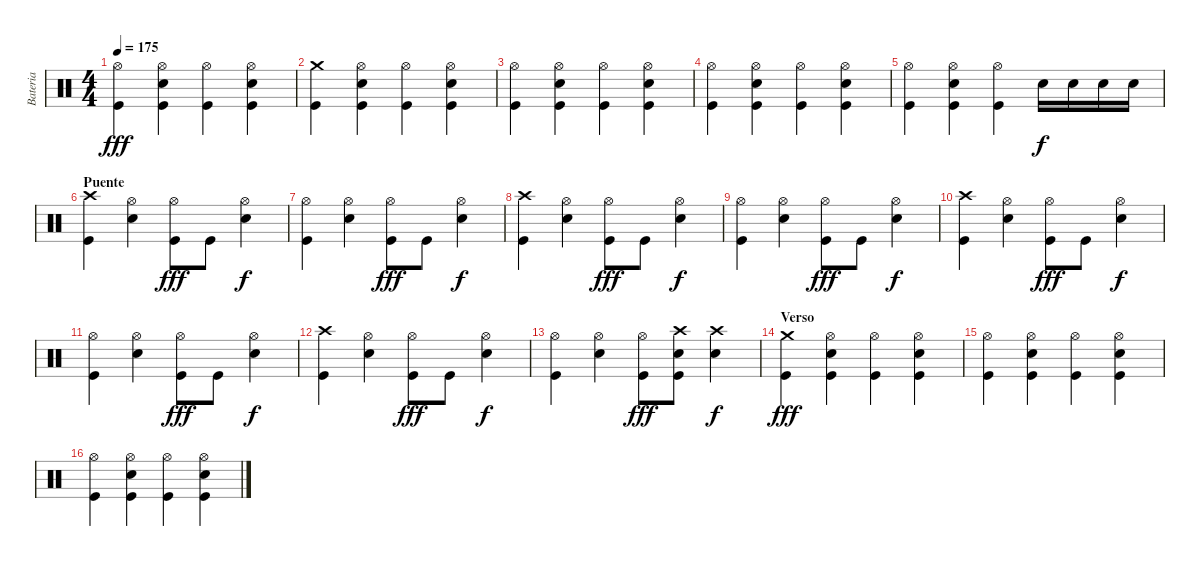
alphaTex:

\track ("Bateria" "Bateria") {instrument percussion}
\staff {score}
\articulation defaults
\ts (4 4)
\tempo 175
\clef neutral
\ks c
("Hi-Hat (open)" "Kick (hit)").4{dy fff} ("Hi-Hat (open)" "Electric Snare (hit)" "Kick (hit)").4 ("Hi-Hat (open)" "Kick (hit)").4 ("Hi-Hat (open)" "Electric Snare (hit)" "Kick (hit)").4 |
("Crash medium (hit)" "Kick (hit)").4 ("Hi-Hat (open)" "Electric Snare (hit)" "Kick (hit)").4 ("Hi-Hat (open)" "Kick (hit)").4 ("Hi-Hat (open)" "Electric Snare (hit)" "Kick (hit)").4 |
("Hi-Hat (open)" "Kick (hit)").4 ("Hi-Hat (open)" "Electric Snare (hit)" "Kick (hit)").4 ("Hi-Hat (open)" "Kick (hit)").4 ("Hi-Hat (open)" "Electric Snare (hit)" "Kick (hit)").4 |
("Hi-Hat (open)" "Kick (hit)").4 ("Hi-Hat (open)" "Electric Snare (hit)" "Kick (hit)").4 ("Hi-Hat (open)" "Kick (hit)").4 ("Hi-Hat (open)" "Electric Snare (hit)" "Kick (hit)").4 |
("Hi-Hat (open)" "Kick (hit)").4 ("Hi-Hat (open)" "Electric Snare (hit)" "Kick (hit)").4 ("Hi-Hat (open)" "Kick (hit)").4 "Electric Snare (hit)".16{dy f} "Electric Snare (hit)".16 "Electric Snare (hit)".16 "Electric Snare (hit)".16 |
\section ("" "Puente")
("Crash high (hit)" "Kick (hit)").4 ("Hi-Hat (open)" "Electric Snare (hit)").4 ("Hi-Hat (open)" "Kick (hit)").8{dy fff} "Kick (hit)".8 ("Hi-Hat (open)" "Electric Snare (hit)").4{dy f} |
("Hi-Hat (open)" "Kick (hit)").4 ("Hi-Hat (open)" "Electric Snare (hit)").4 ("Hi-Hat (open)" "Kick (hit)").8{dy fff} "Kick (hit)".8 ("Hi-Hat (open)" "Electric Snare (hit)").4{dy f} |
("Crash high (hit)" "Kick (hit)").4 ("Hi-Hat (open)" "Electric Snare (hit)").4 ("Hi-Hat (open)" "Kick (hit)").8{dy fff} "Kick (hit)".8 ("Hi-Hat (open)" "Electric Snare (hit)").4{dy f} |
("Hi-Hat (open)" "Kick (hit)").4 ("Hi-Hat (open)" "Electric Snare (hit)").4 ("Hi-Hat (open)" "Kick (hit)").8{dy fff} "Kick (hit)".8 ("Hi-Hat (open)" "Electric Snare (hit)").4{dy f} |
("Crash high (hit)" "Kick (hit)").4 ("Hi-Hat (open)" "Electric Snare (hit)").4 ("Hi-Hat (open)" "Kick (hit)").8{dy fff} "Kick (hit)".8 ("Hi-Hat (open)" "Electric Snare (hit)").4{dy f} |
("Hi-Hat (open)" "Kick (hit)").4 ("Hi-Hat (open)" "Electric Snare (hit)").4 ("Hi-Hat (open)" "Kick (hit)").8{dy fff} "Kick (hit)".8 ("Hi-Hat (open)" "Electric Snare (hit)").4{dy f} |
("Crash high (hit)" "Kick (hit)").4 ("Hi-Hat (open)" "Electric Snare (hit)").4 ("Hi-Hat (open)" "Kick (hit)").8{dy fff} "Kick (hit)".8 ("Hi-Hat (open)" "Electric Snare (hit)").4{dy f} |
("Hi-Hat (open)" "Kick (hit)").4 ("Hi-Hat (open)" "Electric Snare (hit)").4 ("Hi-Hat (open)" "Kick (hit)").8{dy fff} ("Crash high (hit)" "Electric Snare (hit)" "Kick (hit)").8 ("Crash high (hit)" "Electric Snare (hit)").4{dy f} |
\section ("" "Verso")
("Crash medium (hit)" "Kick (hit)").4{dy fff} ("Hi-Hat (open)" "Electric Snare (hit)" "Kick (hit)").4 ("Hi-Hat (open)" "Kick (hit)").4 ("Hi-Hat (open)" "Electric Snare (hit)" "Kick (hit)").4 |
("Hi-Hat (open)" "Kick (hit)").4 ("Hi-Hat (open)" "Electric Snare (hit)" "Kick (hit)").4 ("Hi-Hat (open)" "Kick (hit)").4 ("Hi-Hat (open)" "Electric Snare (hit)" "Kick (hit)").4 |
("Hi-Hat (open)" "Kick (hit)").4 ("Hi-Hat (open)" "Electric Snare (hit)" "Kick (hit)").4 ("Hi-Hat (open)" "Kick (hit)").4 ("Hi-Hat (open)" "Electric Snare (hit)" "Kick (hit)").4
